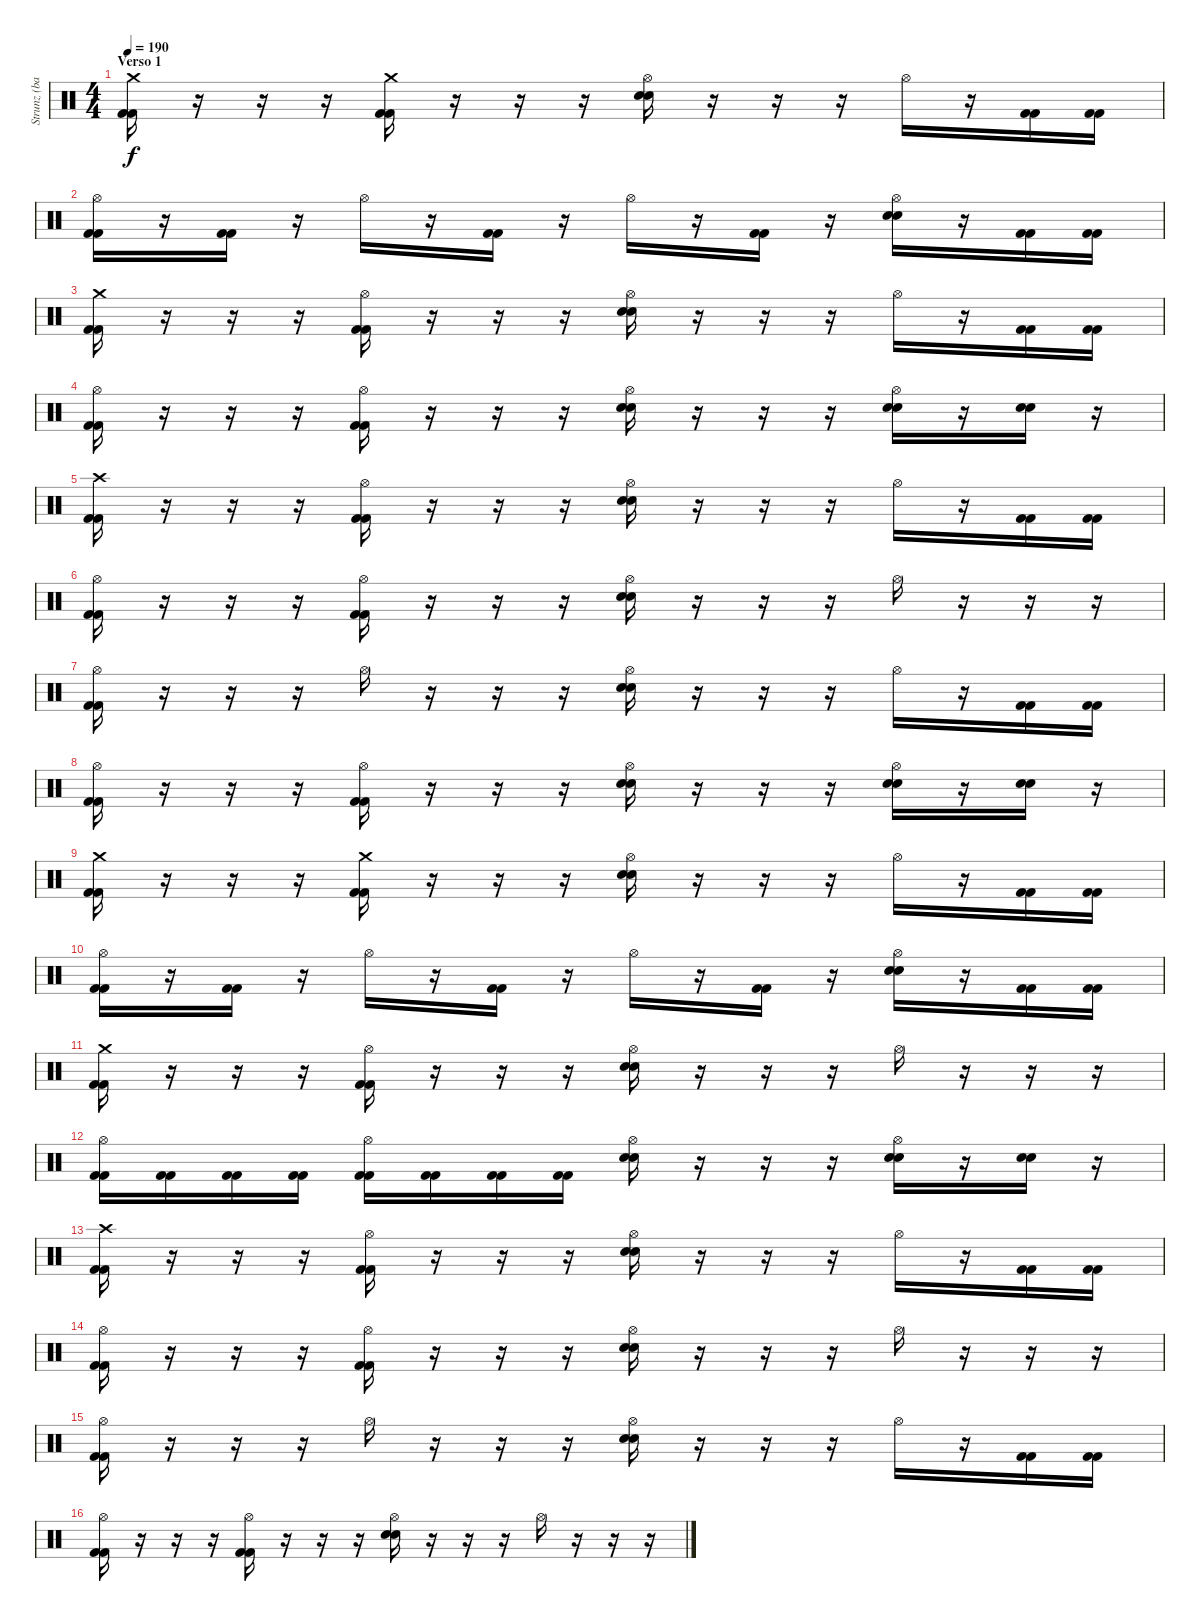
\track ("Strunz (bateria)" "Strunz (ba") {instrument percussion}
\staff {score}
\articulation defaults
\ts (4 4)
\section ("" "Verso 1")
\tempo 190
\clef neutral
\ks c
("Crash medium (hit)" "Kick (hit) 2" "Kick (hit) 2").16{dy f} r.16 r.16 r.16 ("Crash medium (hit)" "Kick (hit) 2" "Kick (hit) 2").16 r.16 r.16 r.16 ("Hi-Hat (open)" "Snare (hit) 2" "Snare (hit) 2").16 r.16 r.16 r.16 "Hi-Hat (open)".16 r.16 ("Kick (hit) 2" "Kick (hit) 2").16 ("Kick (hit) 2" "Kick (hit) 2").16 |
("Hi-Hat (open)" "Kick (hit) 2" "Kick (hit) 2").16 r.16 ("Kick (hit) 2" "Kick (hit) 2").16 r.16 "Hi-Hat (open)".16 r.16 ("Kick (hit) 2" "Kick (hit) 2").16 r.16 "Hi-Hat (open)".16 r.16 ("Kick (hit) 2" "Kick (hit) 2").16 r.16 ("Hi-Hat (open)" "Snare (hit) 2" "Snare (hit) 2").16 r.16 ("Kick (hit) 2" "Kick (hit) 2").16 ("Kick (hit) 2" "Kick (hit) 2").16 |
("Crash medium (hit)" "Kick (hit) 2" "Kick (hit) 2").16 r.16 r.16 r.16 ("Hi-Hat (open)" "Kick (hit) 2" "Kick (hit) 2").16 r.16 r.16 r.16 ("Hi-Hat (open)" "Snare (hit) 2" "Snare (hit) 2").16 r.16 r.16 r.16 "Hi-Hat (open)".16 r.16 ("Kick (hit) 2" "Kick (hit) 2").16 ("Kick (hit) 2" "Kick (hit) 2").16 |
("Hi-Hat (open)" "Kick (hit) 2" "Kick (hit) 2").16 r.16 r.16 r.16 ("Hi-Hat (open)" "Kick (hit) 2" "Kick (hit) 2").16 r.16 r.16 r.16 ("Hi-Hat (open)" "Snare (hit) 2" "Snare (hit) 2").16 r.16 r.16 r.16 ("Hi-Hat (open)" "Snare (hit) 2" "Snare (hit) 2").16 r.16 ("Snare (hit) 2" "Snare (hit) 2").16 r.16 |
("Crash high (hit)" "Kick (hit) 2" "Kick (hit) 2").16 r.16 r.16 r.16 ("Hi-Hat (open)" "Kick (hit) 2" "Kick (hit) 2").16 r.16 r.16 r.16 ("Hi-Hat (open)" "Snare (hit) 2" "Snare (hit) 2").16 r.16 r.16 r.16 "Hi-Hat (open)".16 r.16 ("Kick (hit) 2" "Kick (hit) 2").16 ("Kick (hit) 2" "Kick (hit) 2").16 |
("Hi-Hat (open)" "Kick (hit) 2" "Kick (hit) 2").16 r.16 r.16 r.16 ("Hi-Hat (open)" "Kick (hit) 2" "Kick (hit) 2").16 r.16 r.16 r.16 ("Hi-Hat (open)" "Snare (hit) 2" "Snare (hit) 2").16 r.16 r.16 r.16 "Hi-Hat (open)".16 r.16 r.16 r.16 |
("Hi-Hat (open)" "Kick (hit) 2" "Kick (hit) 2").16 r.16 r.16 r.16 "Hi-Hat (open)".16 r.16 r.16 r.16 ("Hi-Hat (open)" "Snare (hit) 2" "Snare (hit) 2").16 r.16 r.16 r.16 "Hi-Hat (open)".16 r.16 ("Kick (hit) 2" "Kick (hit) 2").16 ("Kick (hit) 2" "Kick (hit) 2").16 |
("Hi-Hat (open)" "Kick (hit) 2" "Kick (hit) 2").16 r.16 r.16 r.16 ("Hi-Hat (open)" "Kick (hit) 2" "Kick (hit) 2").16 r.16 r.16 r.16 ("Hi-Hat (open)" "Snare (hit) 2" "Snare (hit) 2").16 r.16 r.16 r.16 ("Hi-Hat (open)" "Snare (hit) 2" "Snare (hit) 2").16 r.16 ("Snare (hit) 2" "Snare (hit) 2").16 r.16 |
("Crash medium (hit)" "Kick (hit) 2" "Kick (hit) 2").16 r.16 r.16 r.16 ("Crash medium (hit)" "Kick (hit) 2" "Kick (hit) 2").16 r.16 r.16 r.16 ("Hi-Hat (open)" "Snare (hit) 2" "Snare (hit) 2").16 r.16 r.16 r.16 "Hi-Hat (open)".16 r.16 ("Kick (hit) 2" "Kick (hit) 2").16 ("Kick (hit) 2" "Kick (hit) 2").16 |
("Hi-Hat (open)" "Kick (hit) 2" "Kick (hit) 2").16 r.16 ("Kick (hit) 2" "Kick (hit) 2").16 r.16 "Hi-Hat (open)".16 r.16 ("Kick (hit) 2" "Kick (hit) 2").16 r.16 "Hi-Hat (open)".16 r.16 ("Kick (hit) 2" "Kick (hit) 2").16 r.16 ("Hi-Hat (open)" "Snare (hit) 2" "Snare (hit) 2").16 r.16 ("Kick (hit) 2" "Kick (hit) 2").16 ("Kick (hit) 2" "Kick (hit) 2").16 |
("Crash medium (hit)" "Kick (hit) 2" "Kick (hit) 2").16 r.16 r.16 r.16 ("Hi-Hat (open)" "Kick (hit) 2" "Kick (hit) 2").16 r.16 r.16 r.16 ("Hi-Hat (open)" "Snare (hit) 2" "Snare (hit) 2").16 r.16 r.16 r.16 "Hi-Hat (open)".16 r.16 r.16 r.16 |
("Hi-Hat (open)" "Kick (hit) 2" "Kick (hit) 2").16 ("Kick (hit) 2" "Kick (hit) 2").16 ("Kick (hit) 2" "Kick (hit) 2").16 ("Kick (hit) 2" "Kick (hit) 2").16 ("Hi-Hat (open)" "Kick (hit) 2" "Kick (hit) 2").16 ("Kick (hit) 2" "Kick (hit) 2").16 ("Kick (hit) 2" "Kick (hit) 2").16 ("Kick (hit) 2" "Kick (hit) 2").16 ("Hi-Hat (open)" "Snare (hit) 2" "Snare (hit) 2").16 r.16 r.16 r.16 ("Hi-Hat (open)" "Snare (hit) 2" "Snare (hit) 2").16 r.16 ("Snare (hit) 2" "Snare (hit) 2").16 r.16 |
("Crash high (hit)" "Kick (hit) 2" "Kick (hit) 2").16 r.16 r.16 r.16 ("Hi-Hat (open)" "Kick (hit) 2" "Kick (hit) 2").16 r.16 r.16 r.16 ("Hi-Hat (open)" "Snare (hit) 2" "Snare (hit) 2").16 r.16 r.16 r.16 "Hi-Hat (open)".16 r.16 ("Kick (hit) 2" "Kick (hit) 2").16 ("Kick (hit) 2" "Kick (hit) 2").16 |
("Hi-Hat (open)" "Kick (hit) 2" "Kick (hit) 2").16 r.16 r.16 r.16 ("Hi-Hat (open)" "Kick (hit) 2" "Kick (hit) 2").16 r.16 r.16 r.16 ("Hi-Hat (open)" "Snare (hit) 2" "Snare (hit) 2").16 r.16 r.16 r.16 "Hi-Hat (open)".16 r.16 r.16 r.16 |
("Hi-Hat (open)" "Kick (hit) 2" "Kick (hit) 2").16 r.16 r.16 r.16 "Hi-Hat (open)".16 r.16 r.16 r.16 ("Hi-Hat (open)" "Snare (hit) 2" "Snare (hit) 2").16 r.16 r.16 r.16 "Hi-Hat (open)".16 r.16 ("Kick (hit) 2" "Kick (hit) 2").16 ("Kick (hit) 2" "Kick (hit) 2").16 |
("Hi-Hat (open)" "Kick (hit) 2" "Kick (hit) 2").16 r.16 r.16 r.16 ("Hi-Hat (open)" "Kick (hit) 2" "Kick (hit) 2").16 r.16 r.16 r.16 ("Hi-Hat (open)" "Snare (hit) 2" "Snare (hit) 2").16 r.16 r.16 r.16 "Hi-Hat (open)".16 r.16 r.16 r.16
